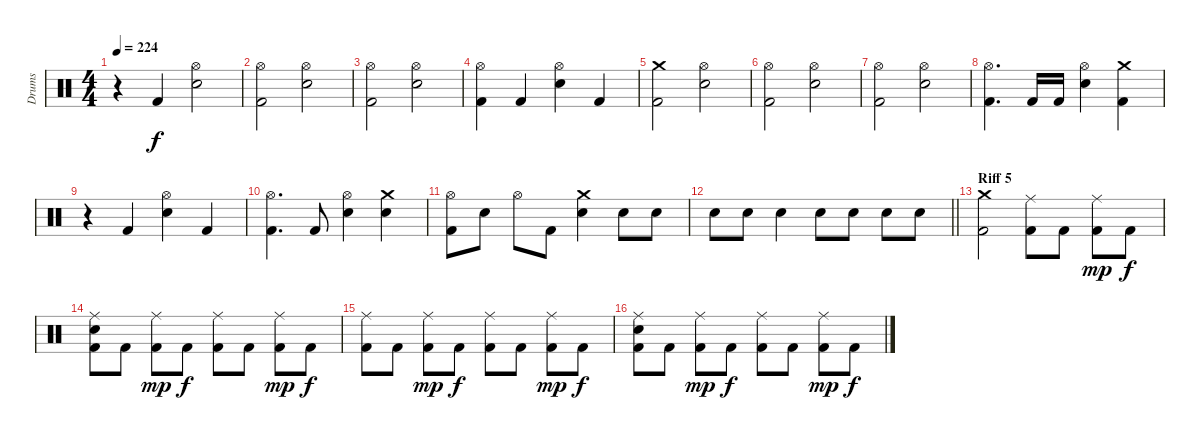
\track ("Drums" "Drums") {instrument percussion}
\staff {score}
\articulation defaults
\ts (4 4)
\tempo 224
\clef neutral
\ks c
r.4{dy f} "Kick (hit) 2".4 ("Electric Snare (hit)" "Hi-Hat (open)").2 |
("Hi-Hat (open)" "Kick (hit) 2").2 ("Hi-Hat (open)" "Electric Snare (hit)").2 |
("Hi-Hat (open)" "Kick (hit) 2").2 ("Hi-Hat (open)" "Electric Snare (hit)").2 |
("Hi-Hat (open)" "Kick (hit) 2").4 "Kick (hit) 2".4 ("Hi-Hat (open)" "Electric Snare (hit)").4 "Kick (hit) 2".4 |
("Crash medium (hit)" "Kick (hit) 2").2 ("Hi-Hat (open)" "Electric Snare (hit)").2 |
("Hi-Hat (open)" "Kick (hit) 2").2 ("Hi-Hat (open)" "Electric Snare (hit)").2 |
("Hi-Hat (open)" "Kick (hit) 2").2 ("Hi-Hat (open)" "Electric Snare (hit)").2 |
("Hi-Hat (open)" "Kick (hit) 2").4{d} "Kick (hit) 2".16 "Kick (hit) 2".16 ("Hi-Hat (open)" "Electric Snare (hit)").4 ("Kick (hit) 2" "Crash medium (hit)").4 |
r.4 "Kick (hit) 2".4 ("Electric Snare (hit)" "Hi-Hat (open)").4 "Kick (hit) 2".4 |
("Kick (hit) 2" "Hi-Hat (open)").4{d} "Kick (hit) 2".8 ("Electric Snare (hit)" "Hi-Hat (open)").4 ("Electric Snare (hit)" "Crash medium (hit)").4 |
("Kick (hit) 2" "Hi-Hat (open)").8 "Electric Snare (hit)".8 "Hi-Hat (open)".8 "Kick (hit) 2".8 ("Electric Snare (hit)" "Crash medium (hit)").4 "Electric Snare (hit)".8 "Electric Snare (hit)".8 |
\barLineRight lightlight "Electric Snare (hit)".8 "Electric Snare (hit)".8 "Electric Snare (hit)".4 "Electric Snare (hit)".8 "Electric Snare (hit)".8 "Electric Snare (hit)".8 "Electric Snare (hit)".8
|
\section ("" "Riff 5")
("Crash medium (hit)" "Kick (hit) 2").2 ("Kick (hit) 2" "Ride (middle)").8 "Kick (hit) 2".8 ("Kick (hit) 2" "Ride (middle)").8{dy mp} "Kick (hit) 2".8{dy f} |
("Kick (hit) 2" "Electric Snare (hit)" "Ride (middle)").8 "Kick (hit) 2".8 ("Kick (hit) 2" "Ride (middle)").8{dy mp} "Kick (hit) 2".8{dy f} ("Kick (hit) 2" "Ride (middle)").8 "Kick (hit) 2".8 ("Kick (hit) 2" "Ride (middle)").8{dy mp} "Kick (hit) 2".8{dy f} |
("Kick (hit) 2" "Ride (middle)").8 "Kick (hit) 2".8 ("Kick (hit) 2" "Ride (middle)").8{dy mp} "Kick (hit) 2".8{dy f} ("Kick (hit) 2" "Ride (middle)").8 "Kick (hit) 2".8 ("Kick (hit) 2" "Ride (middle)").8{dy mp} "Kick (hit) 2".8{dy f} |
("Kick (hit) 2" "Electric Snare (hit)" "Ride (middle)").8 "Kick (hit) 2".8 ("Kick (hit) 2" "Ride (middle)").8{dy mp} "Kick (hit) 2".8{dy f} ("Kick (hit) 2" "Ride (middle)").8 "Kick (hit) 2".8 ("Kick (hit) 2" "Ride (middle)").8{dy mp} "Kick (hit) 2".8{dy f}
